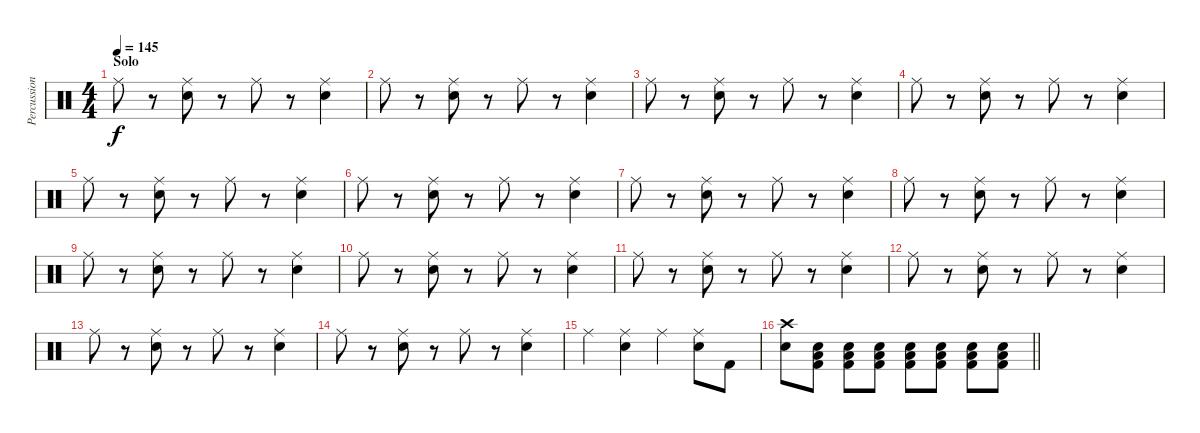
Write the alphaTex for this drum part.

\track ("Percussion" "Percussion") {instrument percussion}
\staff {score}
\articulation defaults
\ts (4 4)
\section ("" "Solo")
\tempo 145
\clef neutral
\ks c "Ride (middle)".8{dy f}
r.8 ("Ride (middle)" "Electric Snare (hit)").8 r.8 "Ride (middle)".8 r.8 ("Ride (middle)" "Electric Snare (hit)").4 |
"Ride (middle)".8 r.8 ("Ride (middle)" "Electric Snare (hit)").8 r.8 "Ride (middle)".8 r.8 ("Ride (middle)" "Electric Snare (hit)").4 |
"Ride (middle)".8 r.8 ("Ride (middle)" "Electric Snare (hit)").8 r.8 "Ride (middle)".8 r.8 ("Ride (middle)" "Electric Snare (hit)").4 |
"Ride (middle)".8 r.8 ("Ride (middle)" "Electric Snare (hit)").8 r.8 "Ride (middle)".8 r.8 ("Ride (middle)" "Electric Snare (hit)").4 |
"Ride (middle)".8 r.8 ("Ride (middle)" "Electric Snare (hit)").8 r.8 "Ride (middle)".8 r.8 ("Ride (middle)" "Electric Snare (hit)").4 |
"Ride (middle)".8 r.8 ("Ride (middle)" "Electric Snare (hit)").8 r.8 "Ride (middle)".8 r.8 ("Ride (middle)" "Electric Snare (hit)").4 |
"Ride (middle)".8 r.8 ("Ride (middle)" "Electric Snare (hit)").8 r.8 "Ride (middle)".8 r.8 ("Ride (middle)" "Electric Snare (hit)").4 |
"Ride (middle)".8 r.8 ("Ride (middle)" "Electric Snare (hit)").8 r.8 "Ride (middle)".8 r.8 ("Ride (middle)" "Electric Snare (hit)").4 |
"Ride (middle)".8 r.8 ("Ride (middle)" "Electric Snare (hit)").8 r.8 "Ride (middle)".8 r.8 ("Ride (middle)" "Electric Snare (hit)").4 |
"Ride (middle)".8 r.8 ("Ride (middle)" "Electric Snare (hit)").8 r.8 "Ride (middle)".8 r.8 ("Ride (middle)" "Electric Snare (hit)").4 |
"Ride (middle)".8 r.8 ("Ride (middle)" "Electric Snare (hit)").8 r.8 "Ride (middle)".8 r.8 ("Ride (middle)" "Electric Snare (hit)").4 |
"Ride (middle)".8 r.8 ("Ride (middle)" "Electric Snare (hit)").8 r.8 "Ride (middle)".8 r.8 ("Ride (middle)" "Electric Snare (hit)").4 |
"Ride (middle)".8 r.8 ("Ride (middle)" "Electric Snare (hit)").8 r.8 "Ride (middle)".8 r.8 ("Ride (middle)" "Electric Snare (hit)").4 |
"Ride (middle)".8 r.8 ("Ride (middle)" "Electric Snare (hit)").8 r.8 "Ride (middle)".8 r.8 ("Ride (middle)" "Electric Snare (hit)").4 |
"Ride (middle)".4 ("Ride (middle)" "Electric Snare (hit)").4 "Ride (middle)".4 ("Ride (middle)" "Electric Snare (hit)").8 "Kick (hit) 2".8 |
\barLineRight lightlight
("Crash high (hit)" "Electric Snare (hit)").8 ("Kick (hit) 2" "Low Floor Tom (hit)" "Electric Snare (hit)").8 ("Kick (hit) 2" "Low Floor Tom (hit)" "Electric Snare (hit)").8 ("Kick (hit) 2" "Low Floor Tom (hit)" "Electric Snare (hit)").8 ("Kick (hit) 2" "Low Floor Tom (hit)" "Electric Snare (hit)").8 ("Kick (hit) 2" "Low Floor Tom (hit)" "Electric Snare (hit)").8 ("Kick (hit) 2" "Low Floor Tom (hit)" "Electric Snare (hit)").8 ("Kick (hit) 2" "Low Floor Tom (hit)" "Electric Snare (hit)").8
